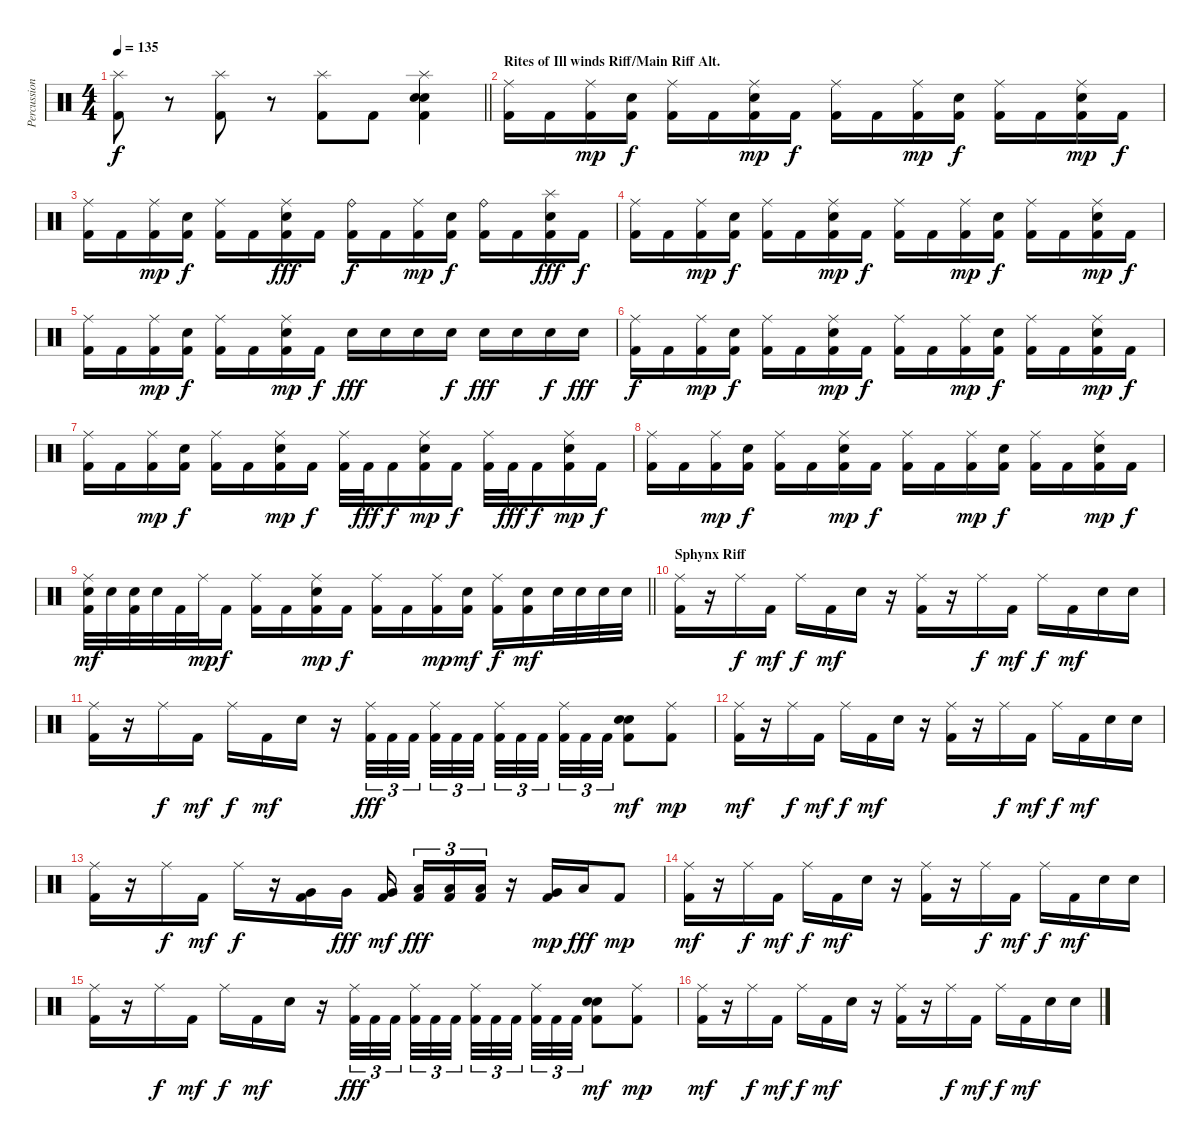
\track ("Percussion" "Percussion") {instrument percussion}
\staff {score}
\articulation defaults
\ts (4 4)
\tempo 135
\clef neutral
\barLineRight lightlight
\ks c
("Splash (hit)" "Kick (hit) 2").8{dy f} r.8 ("Splash (hit)" "Kick (hit) 2").8 r.8 ("Splash (hit)" "Kick (hit) 2").8 "Kick (hit) 2".8 ("Splash (hit)" "Electric Snare (hit)" "Snare (hit) 2" "Kick (hit) 2").4 |
\section ("" "Rites of Ill winds Riff/Main Riff Alt.")
("Ride (middle)" "Kick (hit) 2").16 "Kick (hit) 2".16 ("Ride (middle)" "Kick (hit) 2").16{dy mp} ("Electric Snare (hit)" "Kick (hit) 2").16{dy f} ("Ride (middle)" "Kick (hit) 2").16 "Kick (hit) 2".16 ("Ride (middle)" "Electric Snare (hit)" "Kick (hit) 2").16{dy mp} "Kick (hit) 2".16{dy f} ("Ride (middle)" "Kick (hit) 2").16 "Kick (hit) 2".16 ("Ride (middle)" "Kick (hit) 2").16{dy mp} ("Electric Snare (hit)" "Kick (hit) 2").16{dy f} ("Ride (middle)" "Kick (hit) 2").16 "Kick (hit) 2".16 ("Ride (middle)" "Electric Snare (hit)" "Kick (hit) 2").16{dy mp} "Kick (hit) 2".16{dy f} |
("Ride (middle)" "Kick (hit) 2").16 "Kick (hit) 2".16 ("Ride (middle)" "Kick (hit) 2").16{dy mp} ("Electric Snare (hit)" "Kick (hit) 2").16{dy f} ("Ride (middle)" "Kick (hit) 2").16 "Kick (hit) 2".16 ("Ride (middle)" "Electric Snare (hit)" "Kick (hit) 2").16{dy fff} "Kick (hit) 2".16 ("Ride (bell)" "Kick (hit) 2").16{dy f} "Kick (hit) 2".16 ("Ride (middle)" "Kick (hit) 2").16{dy mp} ("Electric Snare (hit)" "Kick (hit) 2").16{dy f} ("Ride (bell)" "Kick (hit) 2").16 "Kick (hit) 2".16 ("Splash (hit)" "Electric Snare (hit)" "Kick (hit) 2").16{dy fff} "Kick (hit) 2".16{dy f} |
("Ride (middle)" "Kick (hit) 2").16 "Kick (hit) 2".16 ("Ride (middle)" "Kick (hit) 2").16{dy mp} ("Electric Snare (hit)" "Kick (hit) 2").16{dy f} ("Ride (middle)" "Kick (hit) 2").16 "Kick (hit) 2".16 ("Ride (middle)" "Electric Snare (hit)" "Kick (hit) 2").16{dy mp} "Kick (hit) 2".16{dy f} ("Ride (middle)" "Kick (hit) 2").16 "Kick (hit) 2".16 ("Ride (middle)" "Kick (hit) 2").16{dy mp} ("Electric Snare (hit)" "Kick (hit) 2").16{dy f} ("Ride (middle)" "Kick (hit) 2").16 "Kick (hit) 2".16 ("Ride (middle)" "Electric Snare (hit)" "Kick (hit) 2").16{dy mp} "Kick (hit) 2".16{dy f} |
("Ride (middle)" "Kick (hit) 2").16 "Kick (hit) 2".16 ("Ride (middle)" "Kick (hit) 2").16{dy mp} ("Electric Snare (hit)" "Kick (hit) 2").16{dy f} ("Ride (middle)" "Kick (hit) 2").16 "Kick (hit) 2".16 ("Ride (middle)" "Electric Snare (hit)" "Kick (hit) 2").16{dy mp} "Kick (hit) 2".16{dy f} "Electric Snare (hit)".16{dy fff} "Electric Snare (hit)".16 "Electric Snare (hit)".16 "Electric Snare (hit)".16{dy f} "Electric Snare (hit)".16{dy fff} "Electric Snare (hit)".16 "Electric Snare (hit)".16{dy f} "Electric Snare (hit)".16{dy fff} |
("Ride (middle)" "Kick (hit) 2").16{dy f} "Kick (hit) 2".16 ("Ride (middle)" "Kick (hit) 2").16{dy mp} ("Electric Snare (hit)" "Kick (hit) 2").16{dy f} ("Ride (middle)" "Kick (hit) 2").16 "Kick (hit) 2".16 ("Ride (middle)" "Electric Snare (hit)" "Kick (hit) 2").16{dy mp} "Kick (hit) 2".16{dy f} ("Ride (middle)" "Kick (hit) 2").16 "Kick (hit) 2".16 ("Ride (middle)" "Kick (hit) 2").16{dy mp} ("Electric Snare (hit)" "Kick (hit) 2").16{dy f} ("Ride (middle)" "Kick (hit) 2").16 "Kick (hit) 2".16 ("Ride (middle)" "Electric Snare (hit)" "Kick (hit) 2").16{dy mp} "Kick (hit) 2".16{dy f} |
("Ride (middle)" "Kick (hit) 2").16 "Kick (hit) 2".16 ("Ride (middle)" "Kick (hit) 2").16{dy mp} ("Electric Snare (hit)" "Kick (hit) 2").16{dy f} ("Ride (middle)" "Kick (hit) 2").16 "Kick (hit) 2".16 ("Ride (middle)" "Electric Snare (hit)" "Kick (hit) 2").16{dy mp} "Kick (hit) 2".16{dy f} ("Ride (middle)" "Kick (hit) 2").32 "Kick (hit) 2".32{dy fff} "Kick (hit) 2".16{dy f} ("Ride (middle)" "Electric Snare (hit)" "Kick (hit) 2").16{dy mp} "Kick (hit) 2".16{dy f} ("Ride (middle)" "Kick (hit) 2").32 "Kick (hit) 2".32{dy fff} "Kick (hit) 2".16{dy f} ("Ride (middle)" "Electric Snare (hit)" "Kick (hit) 2").16{dy mp} "Kick (hit) 2".16{dy f} |
("Ride (middle)" "Kick (hit) 2").16 "Kick (hit) 2".16 ("Ride (middle)" "Kick (hit) 2").16{dy mp} ("Electric Snare (hit)" "Kick (hit) 2").16{dy f} ("Ride (middle)" "Kick (hit) 2").16 "Kick (hit) 2".16 ("Ride (middle)" "Electric Snare (hit)" "Kick (hit) 2").16{dy mp} "Kick (hit) 2".16{dy f} ("Ride (middle)" "Kick (hit) 2").16 "Kick (hit) 2".16 ("Ride (middle)" "Kick (hit) 2").16{dy mp} ("Electric Snare (hit)" "Kick (hit) 2").16{dy f} ("Ride (middle)" "Kick (hit) 2").16 "Kick (hit) 2".16 ("Ride (middle)" "Electric Snare (hit)" "Kick (hit) 2").16{dy mp} "Kick (hit) 2".16{dy f} |
\barLineRight lightlight
("Ride (middle)" "Electric Snare (hit)" "Kick (hit) 2").32{dy mf} "Electric Snare (hit)".32 ("Electric Snare (hit)" "Kick (hit) 2").32 "Electric Snare (hit)".32 "Kick (hit) 2".32 "Ride (middle)".32{dy mp} "Kick (hit) 2".16{dy f} ("Ride (middle)" "Kick (hit) 2").16 "Kick (hit) 2".16 ("Ride (middle)" "Electric Snare (hit)" "Kick (hit) 2").16{dy mp} "Kick (hit) 2".16{dy f} ("Ride (middle)" "Kick (hit) 2").16 "Kick (hit) 2".16 ("Ride (middle)" "Kick (hit) 2").16{dy mp} ("Electric Snare (hit)" "Kick (hit) 2").16{dy mf} ("Ride (middle)" "Kick (hit) 2").16{dy f} ("Electric Snare (hit)" "Kick (hit) 2").16{dy mf} "Electric Snare (hit)".32 "Electric Snare (hit)".32 "Electric Snare (hit)".32 "Electric Snare (hit)".32 |
\section ("" "Sphynx Riff")
("Ride (middle)" "Kick (hit) 2").16 r.16 "Ride (middle)".16{dy f} "Kick (hit) 2".16{dy mf} "Ride (middle)".16{dy f} "Kick (hit) 2".16{dy mf} "Electric Snare (hit)".16 r.16 ("Ride (middle)" "Kick (hit) 2").16 r.16 "Ride (middle)".16{dy f} "Kick (hit) 2".16{dy mf} "Ride (middle)".16{dy f} "Kick (hit) 2".16{dy mf} "Electric Snare (hit)".16 "Electric Snare (hit)".16 |
("Ride (middle)" "Kick (hit) 2").16 r.16 "Ride (middle)".16{dy f} "Kick (hit) 2".16{dy mf} "Ride (middle)".16{dy f} "Kick (hit) 2".16{dy mf} "Electric Snare (hit)".16 r.16 ("Ride (middle)" "Kick (hit) 2").32{tu (3 2) dy fff} "Kick (hit) 2".32{tu (3 2)} "Kick (hit) 2".32{tu (3 2)} ("Ride (middle)" "Kick (hit) 2").32{tu (3 2)} "Kick (hit) 2".32{tu (3 2)} "Kick (hit) 2".32{tu (3 2)} ("Ride (middle)" "Kick (hit) 2").32{tu (3 2)} "Kick (hit) 2".32{tu (3 2)} "Kick (hit) 2".32{tu (3 2)} ("Ride (middle)" "Kick (hit) 2").32{tu (3 2)} "Kick (hit) 2".32{tu (3 2)} "Kick (hit) 2".32{tu (3 2)} ("Electric Snare (hit)" "Snare (hit) 2" "Kick (hit) 2").8{dy mf} ("Ride (middle)" "Kick (hit) 2").8{dy mp} |
("Ride (middle)" "Kick (hit) 2").16{dy mf} r.16 "Ride (middle)".16{dy f} "Kick (hit) 2".16{dy mf} "Ride (middle)".16{dy f} "Kick (hit) 2".16{dy mf} "Electric Snare (hit)".16 r.16 ("Ride (middle)" "Kick (hit) 2").16 r.16 "Ride (middle)".16{dy f} "Kick (hit) 2".16{dy mf} "Ride (middle)".16{dy f} "Kick (hit) 2".16{dy mf} "Electric Snare (hit)".16 "Electric Snare (hit)".16 |
("Ride (middle)" "Kick (hit) 2").16 r.16 "Ride (middle)".16{dy f} "Kick (hit) 2".16{dy mf} "Ride (middle)".16{dy f} r.16 ("Very Low Tom (hit)" "Kick (hit) 2").16 "Very Low Tom (hit)".16{dy fff} ("Very Low Tom (hit)" "Kick (hit) 2").16{dy mf} ("Low Floor Tom (hit)" "Kick (hit) 2").16{tu (3 2) dy fff} ("Low Floor Tom (hit)" "Kick (hit) 2").16{tu (3 2)} ("Low Floor Tom (hit)" "Kick (hit) 2").16{tu (3 2)} r.16 ("Very Low Tom (hit)" "Kick (hit) 2").16{dy mp} "Low Floor Tom (hit)".16{dy fff} "Kick (hit) 2".8{dy mp} |
("Ride (middle)" "Kick (hit) 2").16{dy mf} r.16 "Ride (middle)".16{dy f} "Kick (hit) 2".16{dy mf} "Ride (middle)".16{dy f} "Kick (hit) 2".16{dy mf} "Electric Snare (hit)".16 r.16 ("Ride (middle)" "Kick (hit) 2").16 r.16 "Ride (middle)".16{dy f} "Kick (hit) 2".16{dy mf} "Ride (middle)".16{dy f} "Kick (hit) 2".16{dy mf} "Electric Snare (hit)".16 "Electric Snare (hit)".16 |
("Ride (middle)" "Kick (hit) 2").16 r.16 "Ride (middle)".16{dy f} "Kick (hit) 2".16{dy mf} "Ride (middle)".16{dy f} "Kick (hit) 2".16{dy mf} "Electric Snare (hit)".16 r.16 ("Ride (middle)" "Kick (hit) 2").32{tu (3 2) dy fff} "Kick (hit) 2".32{tu (3 2)} "Kick (hit) 2".32{tu (3 2)} ("Ride (middle)" "Kick (hit) 2").32{tu (3 2)} "Kick (hit) 2".32{tu (3 2)} "Kick (hit) 2".32{tu (3 2)} ("Ride (middle)" "Kick (hit) 2").32{tu (3 2)} "Kick (hit) 2".32{tu (3 2)} "Kick (hit) 2".32{tu (3 2)} ("Ride (middle)" "Kick (hit) 2").32{tu (3 2)} "Kick (hit) 2".32{tu (3 2)} "Kick (hit) 2".32{tu (3 2)} ("Electric Snare (hit)" "Snare (hit) 2" "Kick (hit) 2").8{dy mf} ("Ride (middle)" "Kick (hit) 2").8{dy mp} |
("Ride (middle)" "Kick (hit) 2").16{dy mf} r.16 "Ride (middle)".16{dy f} "Kick (hit) 2".16{dy mf} "Ride (middle)".16{dy f} "Kick (hit) 2".16{dy mf} "Electric Snare (hit)".16 r.16 ("Ride (middle)" "Kick (hit) 2").16 r.16 "Ride (middle)".16{dy f} "Kick (hit) 2".16{dy mf} "Ride (middle)".16{dy f} "Kick (hit) 2".16{dy mf} "Electric Snare (hit)".16 "Electric Snare (hit)".16
